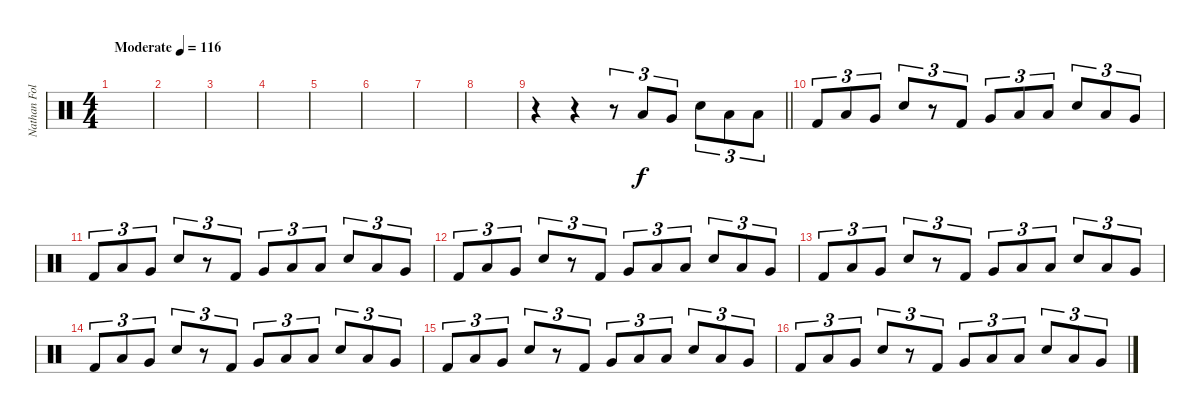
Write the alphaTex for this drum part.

\track ("Nathan Followill" "Nathan Fol") {instrument percussion}
\staff {score}
\articulation defaults
\ts (4 4)
\tempo (116 "Moderate")
\clef neutral
\ks c
|
|
|
|
|
|
|
|
\barLineRight lightlight
r.4 r.4 r.8{tu (3 2)} "Low Tom (hit)".8{tu (3 2)} "Very Low Tom (hit)".8{tu (3 2)} "Electric Snare (hit)".8{tu (3 2)} "Low Floor Tom (hit)".8{tu (3 2)} "Low Tom (hit)".8{tu (3 2)} |
"Kick (hit) 2".8{tu (3 2)} "Low Tom (hit)".8{tu (3 2)} "Very Low Tom (hit)".8{tu (3 2)} "Electric Snare (hit)".8{tu (3 2)} r.8{tu (3 2)} "Kick (hit) 2".8{tu (3 2)} "Very Low Tom (hit)".8{tu (3 2)} "Low Tom (hit)".8{tu (3 2)} "Low Floor Tom (hit)".8{tu (3 2)} "Electric Snare (hit)".8{tu (3 2)} "Low Tom (hit)".8{tu (3 2)} "Very Low Tom (hit)".8{tu (3 2)} |
"Kick (hit) 2".8{tu (3 2)} "Low Tom (hit)".8{tu (3 2)} "Very Low Tom (hit)".8{tu (3 2)} "Electric Snare (hit)".8{tu (3 2)} r.8{tu (3 2)} "Kick (hit) 2".8{tu (3 2)} "Very Low Tom (hit)".8{tu (3 2)} "Low Tom (hit)".8{tu (3 2)} "Low Floor Tom (hit)".8{tu (3 2)} "Electric Snare (hit)".8{tu (3 2)} "Low Tom (hit)".8{tu (3 2)} "Very Low Tom (hit)".8{tu (3 2)} |
"Kick (hit) 2".8{tu (3 2)} "Low Tom (hit)".8{tu (3 2)} "Very Low Tom (hit)".8{tu (3 2)} "Electric Snare (hit)".8{tu (3 2)} r.8{tu (3 2)} "Kick (hit) 2".8{tu (3 2)} "Very Low Tom (hit)".8{tu (3 2)} "Low Tom (hit)".8{tu (3 2)} "Low Floor Tom (hit)".8{tu (3 2)} "Electric Snare (hit)".8{tu (3 2)} "Low Tom (hit)".8{tu (3 2)} "Very Low Tom (hit)".8{tu (3 2)} |
"Kick (hit) 2".8{tu (3 2)} "Low Tom (hit)".8{tu (3 2)} "Very Low Tom (hit)".8{tu (3 2)} "Electric Snare (hit)".8{tu (3 2)} r.8{tu (3 2)} "Kick (hit) 2".8{tu (3 2)} "Very Low Tom (hit)".8{tu (3 2)} "Low Tom (hit)".8{tu (3 2)} "Low Floor Tom (hit)".8{tu (3 2)} "Electric Snare (hit)".8{tu (3 2)} "Low Tom (hit)".8{tu (3 2)} "Very Low Tom (hit)".8{tu (3 2)} |
"Kick (hit) 2".8{tu (3 2)} "Low Tom (hit)".8{tu (3 2)} "Very Low Tom (hit)".8{tu (3 2)} "Electric Snare (hit)".8{tu (3 2)} r.8{tu (3 2)} "Kick (hit) 2".8{tu (3 2)} "Very Low Tom (hit)".8{tu (3 2)} "Low Tom (hit)".8{tu (3 2)} "Low Floor Tom (hit)".8{tu (3 2)} "Electric Snare (hit)".8{tu (3 2)} "Low Tom (hit)".8{tu (3 2)} "Very Low Tom (hit)".8{tu (3 2)} |
"Kick (hit) 2".8{tu (3 2)} "Low Tom (hit)".8{tu (3 2)} "Very Low Tom (hit)".8{tu (3 2)} "Electric Snare (hit)".8{tu (3 2)} r.8{tu (3 2)} "Kick (hit) 2".8{tu (3 2)} "Very Low Tom (hit)".8{tu (3 2)} "Low Tom (hit)".8{tu (3 2)} "Low Floor Tom (hit)".8{tu (3 2)} "Electric Snare (hit)".8{tu (3 2)} "Low Tom (hit)".8{tu (3 2)} "Very Low Tom (hit)".8{tu (3 2)} |
"Kick (hit) 2".8{tu (3 2)} "Low Tom (hit)".8{tu (3 2)} "Very Low Tom (hit)".8{tu (3 2)} "Electric Snare (hit)".8{tu (3 2)} r.8{tu (3 2)} "Kick (hit) 2".8{tu (3 2)} "Very Low Tom (hit)".8{tu (3 2)} "Low Tom (hit)".8{tu (3 2)} "Low Floor Tom (hit)".8{tu (3 2)} "Electric Snare (hit)".8{tu (3 2)} "Low Tom (hit)".8{tu (3 2)} "Very Low Tom (hit)".8{tu (3 2)}
